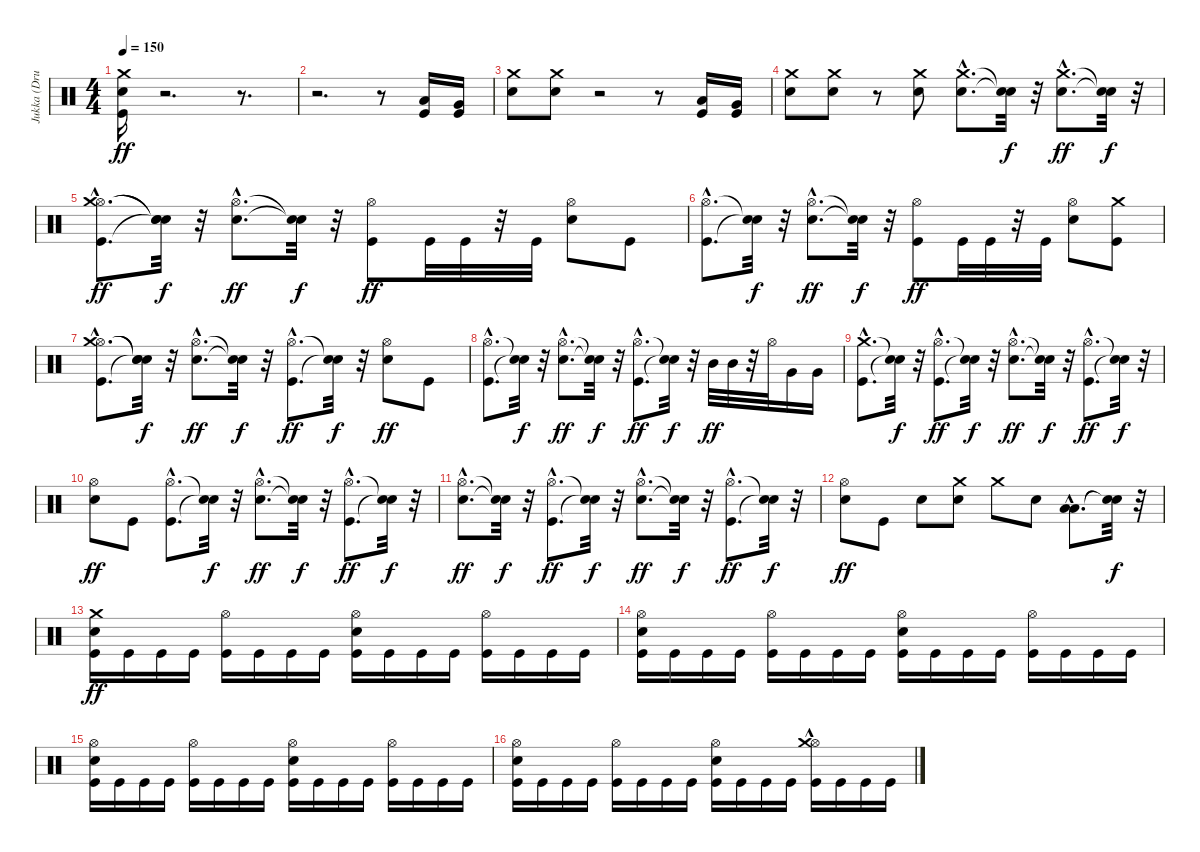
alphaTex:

\track ("Jukka (Drums)" "Jukka (Dru") {instrument percussion}
\staff {score}
\articulation defaults
\ts (4 4)
\tempo 150
\clef neutral
\ks c
("Kick (hit)" "Electric Snare (hit)" "Crash medium (hit)").16{dy ff} r.2{d} r.8{d} |
r.2{d} r.8 ("Kick (hit)" "Low Tom (hit)").16 ("Kick (hit)" "Very Low Tom (hit)").16 |
("Electric Snare (hit)" "Crash medium (hit)").8 ("Electric Snare (hit)" "Crash medium (hit)").8 r.2 r.8 ("Kick (hit)" "Low Tom (hit)").16 ("Kick (hit)" "Very Low Tom (hit)").16 |
("Electric Snare (hit)" "Crash medium (hit)").8 ("Electric Snare (hit)" "Crash medium (hit)").8 r.8 ("Electric Snare (hit)" "Crash medium (hit)").8 ("Electric Snare (hit)"{hac} "Crash medium (hit)"{hac}).8{d} ("Snare (hit)"{t} "Snare (hit)"{t}).32{dy f} r.32 ("Electric Snare (hit)"{hac} "Crash medium (hit)"{hac}).8{d dy ff} ("Snare (hit)"{t} "Snare (hit)"{t}).32{dy f} r.32 |
("Kick (hit)"{hac} "Hi-Hat (open)"{hac} "Crash medium (hit)"{hac}).8{d dy ff} ("Snare (hit)"{t} "Snare (hit)"{t} "Snare (hit)"{t}).32{dy f} r.32 ("Electric Snare (hit)"{hac} "Hi-Hat (open)"{hac}).8{d dy ff} ("Snare (hit)"{t} "Snare (hit)"{t}).32{dy f} r.32 ("Kick (hit)" "Hi-Hat (open)").8{dy ff} "Kick (hit)".32 "Kick (hit)".32 r.32 "Kick (hit)".32 ("Electric Snare (hit)" "Hi-Hat (open)").8 "Kick (hit)".8 |
("Kick (hit)"{hac} "Hi-Hat (open)"{hac}).8{d} ("Snare (hit)"{t} "Snare (hit)"{t}).32{dy f} r.32 ("Electric Snare (hit)"{hac} "Hi-Hat (open)"{hac}).8{d dy ff} ("Snare (hit)"{t} "Snare (hit)"{t}).32{dy f} r.32 ("Kick (hit)" "Hi-Hat (open)").8{dy ff} "Kick (hit)".32 "Kick (hit)".32 r.32 "Kick (hit)".32 ("Electric Snare (hit)" "Hi-Hat (open)").8 ("Kick (hit)" "Crash medium (hit)").8 |
("Kick (hit)"{hac} "Hi-Hat (open)"{hac} "Crash medium (hit)"{hac}).8{d} ("Snare (hit)"{t} "Snare (hit)"{t} "Snare (hit)"{t}).32{dy f} r.32 ("Electric Snare (hit)"{hac} "Hi-Hat (open)"{hac}).8{d dy ff} ("Snare (hit)"{t} "Snare (hit)"{t}).32{dy f} r.32 ("Kick (hit)"{hac} "Hi-Hat (open)"{hac}).8{d dy ff} ("Snare (hit)"{t} "Snare (hit)"{t}).32{dy f} r.32 ("Electric Snare (hit)" "Hi-Hat (open)").8{dy ff} "Kick (hit)".8 |
("Kick (hit)"{hac} "Hi-Hat (open)"{hac}).8{d} ("Snare (hit)"{t} "Snare (hit)"{t}).32{dy f} r.32 ("Electric Snare (hit)"{hac} "Hi-Hat (open)"{hac}).8{d dy ff} ("Snare (hit)"{t} "Snare (hit)"{t}).32{dy f} r.32 ("Kick (hit)"{hac} "Hi-Hat (open)"{hac}).8{d dy ff} ("Snare (hit)"{t} "Snare (hit)"{t}).32{dy f} r.32 "Mid Tom (hit)".32{dy ff} "Mid Tom (hit)".32 r.32 "Hi-Hat (open)".32 "Very Low Tom (hit)".16 "Very Low Tom (hit)".16 |
("Kick (hit)"{hac} "Crash medium (hit)"{hac}).8{d} ("Snare (hit)"{t} "Snare (hit)"{t}).32{dy f} r.32 ("Kick (hit)"{hac} "Hi-Hat (open)"{hac}).8{d dy ff} ("Snare (hit)"{t} "Snare (hit)"{t}).32{dy f} r.32 ("Electric Snare (hit)"{hac} "Hi-Hat (open)"{hac}).8{d dy ff} ("Snare (hit)"{t} "Snare (hit)"{t}).32{dy f} r.32 ("Kick (hit)"{hac} "Hi-Hat (open)"{hac}).8{d dy ff} ("Snare (hit)"{t} "Snare (hit)"{t}).32{dy f} r.32 |
("Electric Snare (hit)" "Hi-Hat (open)").8{dy ff} "Kick (hit)".8 ("Kick (hit)"{hac} "Hi-Hat (open)"{hac}).8{d} ("Snare (hit)"{t} "Snare (hit)"{t}).32{dy f} r.32 ("Electric Snare (hit)"{hac} "Hi-Hat (open)"{hac}).8{d dy ff} ("Snare (hit)"{t} "Snare (hit)"{t}).32{dy f} r.32 ("Kick (hit)"{hac} "Hi-Hat (open)"{hac}).8{d dy ff} ("Snare (hit)"{t} "Snare (hit)"{t}).32{dy f} r.32 |
("Electric Snare (hit)"{hac} "Hi-Hat (open)"{hac}).8{d dy ff} ("Snare (hit)"{t} "Snare (hit)"{t}).32{dy f} r.32 ("Kick (hit)"{hac} "Hi-Hat (open)"{hac}).8{d dy ff} ("Snare (hit)"{t} "Snare (hit)"{t}).32{dy f} r.32 ("Electric Snare (hit)"{hac} "Hi-Hat (open)"{hac}).8{d dy ff} ("Snare (hit)"{t} "Snare (hit)"{t}).32{dy f} r.32 ("Kick (hit)"{hac} "Hi-Hat (open)"{hac}).8{d dy ff} ("Snare (hit)"{t} "Snare (hit)"{t}).32{dy f} r.32 |
("Electric Snare (hit)" "Hi-Hat (open)").8{dy ff} "Kick (hit)".8 "Electric Snare (hit)".8 ("Electric Snare (hit)" "Crash medium (hit)").8 "Crash medium (hit)".8 "Electric Snare (hit)".8 ("Low Floor Tom (hit)"{hac} "Low Tom (hit)"{hac}).8{d} ("Snare (hit)"{t} "Snare (hit)"{t}).32{dy f} r.32 |
("Kick (hit)" "Electric Snare (hit)" "Crash medium (hit)").16{dy ff} "Kick (hit)".16 "Kick (hit)".16 "Kick (hit)".16 ("Kick (hit)" "Hi-Hat (open)").16 "Kick (hit)".16 "Kick (hit)".16 "Kick (hit)".16 ("Kick (hit)" "Electric Snare (hit)" "Hi-Hat (open)").16 "Kick (hit)".16 "Kick (hit)".16 "Kick (hit)".16 ("Kick (hit)" "Hi-Hat (open)").16 "Kick (hit)".16 "Kick (hit)".16 "Kick (hit)".16 |
("Kick (hit)" "Electric Snare (hit)" "Hi-Hat (open)").16 "Kick (hit)".16 "Kick (hit)".16 "Kick (hit)".16 ("Kick (hit)" "Hi-Hat (open)").16 "Kick (hit)".16 "Kick (hit)".16 "Kick (hit)".16 ("Kick (hit)" "Electric Snare (hit)" "Hi-Hat (open)").16 "Kick (hit)".16 "Kick (hit)".16 "Kick (hit)".16 ("Kick (hit)" "Hi-Hat (open)").16 "Kick (hit)".16 "Kick (hit)".16 "Kick (hit)".16 |
("Kick (hit)" "Electric Snare (hit)" "Hi-Hat (open)").16 "Kick (hit)".16 "Kick (hit)".16 "Kick (hit)".16 ("Kick (hit)" "Hi-Hat (open)").16 "Kick (hit)".16 "Kick (hit)".16 "Kick (hit)".16 ("Kick (hit)" "Electric Snare (hit)" "Hi-Hat (open)").16 "Kick (hit)".16 "Kick (hit)".16 "Kick (hit)".16 ("Kick (hit)" "Hi-Hat (open)").16 "Kick (hit)".16 "Kick (hit)".16 "Kick (hit)".16 |
("Kick (hit)" "Electric Snare (hit)" "Hi-Hat (open)").16 "Kick (hit)".16 "Kick (hit)".16 "Kick (hit)".16 ("Kick (hit)" "Hi-Hat (open)").16 "Kick (hit)".16 "Kick (hit)".16 "Kick (hit)".16 ("Kick (hit)" "Electric Snare (hit)" "Hi-Hat (open)").16 "Kick (hit)".16 "Kick (hit)".16 "Kick (hit)".16 ("Kick (hit)" "Hi-Hat (open)" "Crash medium (hit)"{hac}).16 "Kick (hit)".16 "Kick (hit)".16 "Kick (hit)".16
